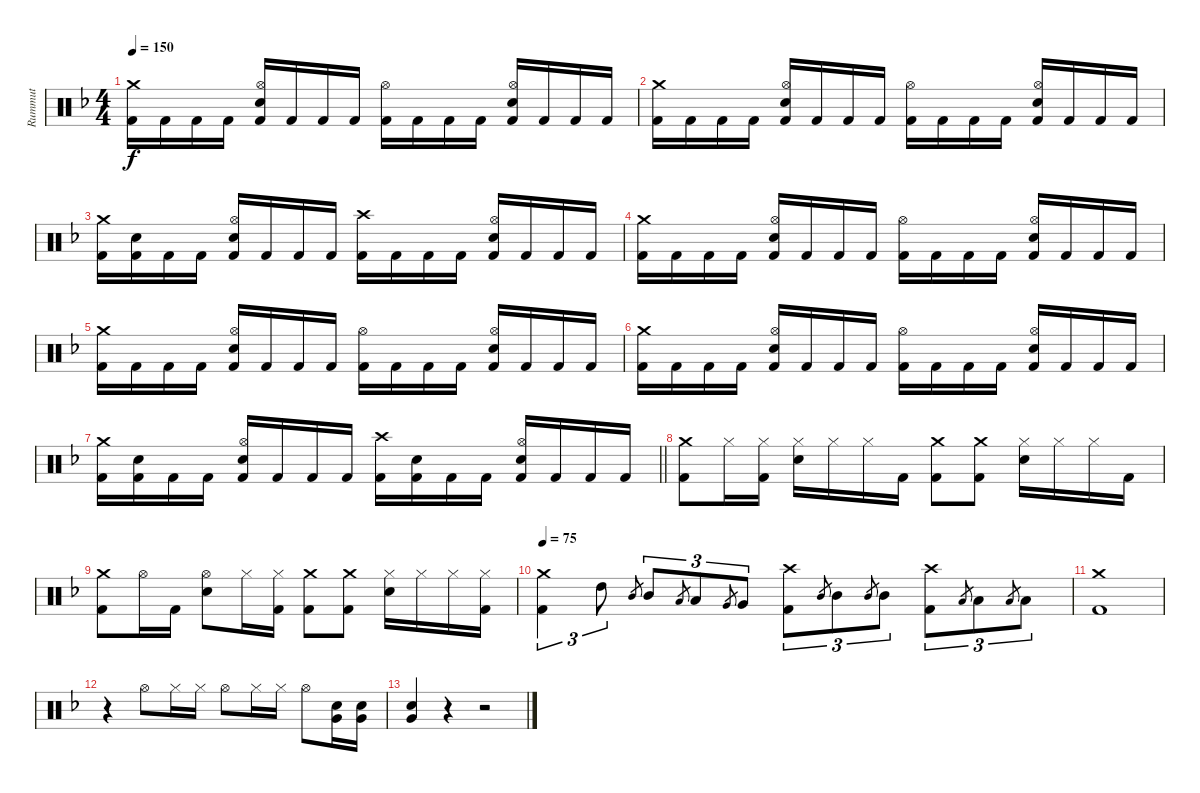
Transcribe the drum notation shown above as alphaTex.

\track ("Rummut" "Rummut") {instrument percussion}
\staff {score}
\articulation defaults
\ts (4 4)
\tempo 150
\clef neutral
\ks dminor
("Crash medium (hit)" "Kick (hit) 2").16{dy f} "Kick (hit) 2".16 "Kick (hit) 2".16 "Kick (hit) 2".16 ("Hi-Hat (open)" "Snare (hit) 2" "Kick (hit) 2").16 "Kick (hit) 2".16 "Kick (hit) 2".16 "Kick (hit) 2".16 ("Hi-Hat (open)" "Kick (hit) 2").16 "Kick (hit) 2".16 "Kick (hit) 2".16 "Kick (hit) 2".16 ("Hi-Hat (open)" "Snare (hit) 2" "Kick (hit) 2").16 "Kick (hit) 2".16 "Kick (hit) 2".16 "Kick (hit) 2".16 |
("Crash medium (hit)" "Kick (hit) 2").16 "Kick (hit) 2".16 "Kick (hit) 2".16 "Kick (hit) 2".16 ("Hi-Hat (open)" "Snare (hit) 2" "Kick (hit) 2").16 "Kick (hit) 2".16 "Kick (hit) 2".16 "Kick (hit) 2".16 ("Hi-Hat (open)" "Kick (hit) 2").16 "Kick (hit) 2".16 "Kick (hit) 2".16 "Kick (hit) 2".16 ("Hi-Hat (open)" "Snare (hit) 2" "Kick (hit) 2").16 "Kick (hit) 2".16 "Kick (hit) 2".16 "Kick (hit) 2".16 |
("Crash medium (hit)" "Kick (hit) 2").16 ("Snare (hit) 2" "Kick (hit) 2").16 "Kick (hit) 2".16 "Kick (hit) 2".16 ("Hi-Hat (open)" "Snare (hit) 2" "Kick (hit) 2").16 "Kick (hit) 2".16 "Kick (hit) 2".16 "Kick (hit) 2".16 ("Crash high (hit)" "Kick (hit) 2").16 "Kick (hit) 2".16 "Kick (hit) 2".16 "Kick (hit) 2".16 ("Hi-Hat (open)" "Snare (hit) 2" "Kick (hit) 2").16 "Kick (hit) 2".16 "Kick (hit) 2".16 "Kick (hit) 2".16 |
("Crash medium (hit)" "Kick (hit) 2").16 "Kick (hit) 2".16 "Kick (hit) 2".16 "Kick (hit) 2".16 ("Hi-Hat (open)" "Snare (hit) 2" "Kick (hit) 2").16 "Kick (hit) 2".16 "Kick (hit) 2".16 "Kick (hit) 2".16 ("Hi-Hat (open)" "Kick (hit) 2").16 "Kick (hit) 2".16 "Kick (hit) 2".16 "Kick (hit) 2".16 ("Hi-Hat (open)" "Snare (hit) 2" "Kick (hit) 2").16 "Kick (hit) 2".16 "Kick (hit) 2".16 "Kick (hit) 2".16 |
("Crash medium (hit)" "Kick (hit) 2").16 "Kick (hit) 2".16 "Kick (hit) 2".16 "Kick (hit) 2".16 ("Hi-Hat (open)" "Snare (hit) 2" "Kick (hit) 2").16 "Kick (hit) 2".16 "Kick (hit) 2".16 "Kick (hit) 2".16 ("Hi-Hat (open)" "Kick (hit) 2").16 "Kick (hit) 2".16 "Kick (hit) 2".16 "Kick (hit) 2".16 ("Hi-Hat (open)" "Snare (hit) 2" "Kick (hit) 2").16 "Kick (hit) 2".16 "Kick (hit) 2".16 "Kick (hit) 2".16 |
("Crash medium (hit)" "Kick (hit) 2").16 "Kick (hit) 2".16 "Kick (hit) 2".16 "Kick (hit) 2".16 ("Hi-Hat (open)" "Snare (hit) 2" "Kick (hit) 2").16 "Kick (hit) 2".16 "Kick (hit) 2".16 "Kick (hit) 2".16 ("Hi-Hat (open)" "Kick (hit) 2").16 "Kick (hit) 2".16 "Kick (hit) 2".16 "Kick (hit) 2".16 ("Hi-Hat (open)" "Snare (hit) 2" "Kick (hit) 2").16 "Kick (hit) 2".16 "Kick (hit) 2".16 "Kick (hit) 2".16 |
\barLineRight lightlight
("Crash medium (hit)" "Kick (hit) 2").16 ("Snare (hit) 2" "Kick (hit) 2").16 "Kick (hit) 2".16 "Kick (hit) 2".16 ("Hi-Hat (open)" "Snare (hit) 2" "Kick (hit) 2").16 "Kick (hit) 2".16 "Kick (hit) 2".16 "Kick (hit) 2".16 ("Crash high (hit)" "Kick (hit) 2").16 ("Snare (hit) 2" "Kick (hit) 2").16 "Kick (hit) 2".16 "Kick (hit) 2".16 ("Hi-Hat (open)" "Snare (hit) 2" "Kick (hit) 2").16 "Kick (hit) 2".16 "Kick (hit) 2".16 "Kick (hit) 2".16 |
("Crash medium (hit)" "Kick (hit) 2").8 "Hi-Hat (closed)".16 ("Hi-Hat (closed)" "Kick (hit) 2").16 ("Hi-Hat (closed)" "Snare (hit) 2").16 "Hi-Hat (closed)".16 "Hi-Hat (closed)".16 "Kick (hit) 2".16 ("Crash medium (hit)" "Kick (hit) 2").8 ("Crash medium (hit)" "Kick (hit) 2").8 ("Hi-Hat (closed)" "Snare (hit) 2").16 "Hi-Hat (closed)".16 "Hi-Hat (closed)".16 "Kick (hit) 2".16 |
("Crash medium (hit)" "Kick (hit) 2").8 "Hi-Hat (open)".16 "Kick (hit) 2".16 ("Hi-Hat (open)" "Snare (hit) 2").8 "Hi-Hat (closed)".16 ("Hi-Hat (closed)" "Kick (hit) 2").16 ("Crash medium (hit)" "Kick (hit) 2").8 ("Crash medium (hit)" "Kick (hit) 2").8 ("Hi-Hat (closed)" "Snare (hit) 2").16 "Hi-Hat (closed)".16 "Hi-Hat (closed)".16 ("Hi-Hat (closed)" "Kick (hit) 2").16 |
\tempo 75
("Crash medium (hit)" "Kick (hit) 2").4{tu (3 2)} "High Tom (hit)".8{tu (3 2)} "Mid Tom (hit)".8{gr} "Mid Tom (hit)".8{tu (3 2)} "Low Tom (hit)".8{gr} "Low Tom (hit)".8{tu (3 2)} "Very Low Tom (hit)".8{gr} "Very Low Tom (hit)".8{tu (3 2)} ("Crash high (hit)" "Kick (hit) 2").8{tu (3 2)} "Mid Tom (hit)".8{gr} "Mid Tom (hit)".8{tu (3 2)} "Mid Tom (hit)".8{gr} "Mid Tom (hit)".8{tu (3 2)} ("Crash high (hit)" "Kick (hit) 2").8{tu (3 2)} "Low Tom (hit)".8{gr} "Low Tom (hit)".8{tu (3 2)} "Low Tom (hit)".8{gr} "Low Tom (hit)".8{tu (3 2)} |
("Crash medium (hit)" "Kick (hit) 2").1 |
r.4 "Hi-Hat (open)".8 "Hi-Hat (closed)".16 "Hi-Hat (closed)".16 "Hi-Hat (open)".8 "Hi-Hat (closed)".16 "Hi-Hat (closed)".16 "Hi-Hat (open)".8 ("Snare (hit) 2" "Very Low Tom (hit)").16 ("Snare (hit) 2" "Very Low Tom (hit)").16 |
("Snare (hit) 2" "Very Low Tom (hit)").4 r.4 r.2
